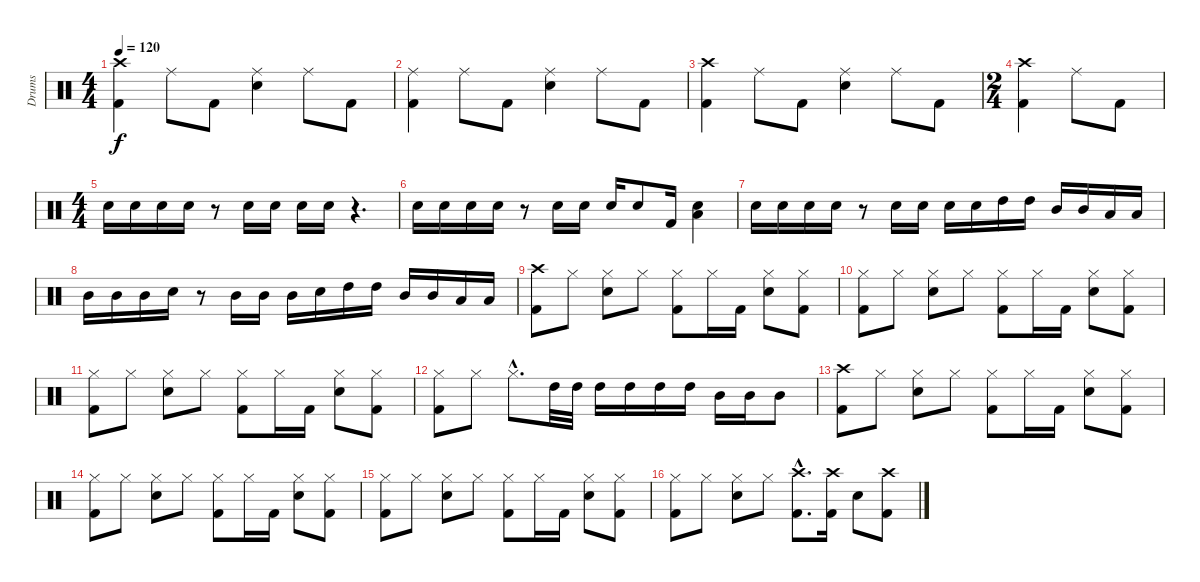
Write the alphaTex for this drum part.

\track ("Drums" "Drums") {instrument percussion}
\staff {score}
\articulation defaults
\ts (4 4)
\tempo 120
\clef neutral
\ks c
("Crash high (hit)" "Kick (hit) 2").4{dy f} "Ride (middle)".8 "Kick (hit) 2".8 ("Ride (middle)" "Electric Snare (hit)").4 "Ride (middle)".8 "Kick (hit) 2".8 |
("Ride (middle)" "Kick (hit) 2").4 "Ride (middle)".8 "Kick (hit) 2".8 ("Ride (middle)" "Electric Snare (hit)").4 "Ride (middle)".8 "Kick (hit) 2".8 |
("Crash high (hit)" "Kick (hit) 2").4 "Ride (middle)".8 "Kick (hit) 2".8 ("Ride (middle)" "Electric Snare (hit)").4 "Ride (middle)".8 "Kick (hit) 2".8 |
\ts (2 4)
("Crash high (hit)" "Kick (hit) 2").4 "Ride (middle)".8 "Kick (hit) 2".8 |
\ts (4 4)
"Electric Snare (hit)".16 "Electric Snare (hit)".16 "Electric Snare (hit)".16 "Electric Snare (hit)".16 r.8 "Electric Snare (hit)".16 "Electric Snare (hit)".16 "Electric Snare (hit)".16 "Electric Snare (hit)".16 r.4{d} |
"Electric Snare (hit)".16 "Electric Snare (hit)".16 "Electric Snare (hit)".16 "Electric Snare (hit)".16 r.8 "Electric Snare (hit)".16 "Electric Snare (hit)".16 "Electric Snare (hit)".16 "Electric Snare (hit)".8 "Kick (hit) 2".16 ("Electric Snare (hit)" "Low Tom (hit)").4 |
"Electric Snare (hit)".16 "Electric Snare (hit)".16 "Electric Snare (hit)".16 "Electric Snare (hit)".16 r.8 "Electric Snare (hit)".16 "Electric Snare (hit)".16 "Electric Snare (hit)".16 "Electric Snare (hit)".16 "High Tom (hit)".16 "High Tom (hit)".16 "Mid Tom (hit)".16 "Mid Tom (hit)".16 "Low Tom (hit)".16 "Low Tom (hit)".16 |
"Mid Tom (hit)".16 "Mid Tom (hit)".16 "Mid Tom (hit)".16 "Electric Snare (hit)".16 r.8 "Mid Tom (hit)".16 "Mid Tom (hit)".16 "Mid Tom (hit)".16 "Snare (hit)".16 "High Tom (hit)".16 "High Tom (hit)".16 "Mid Tom (hit)".16 "Mid Tom (hit)".16 "Low Tom (hit)".16 "Low Tom (hit)".16 |
("Crash high (hit)" "Kick (hit) 2").8 "Hi-Hat (closed)".8 ("Hi-Hat (closed)" "Electric Snare (hit)").8 "Hi-Hat (closed)".8 ("Hi-Hat (closed)" "Kick (hit) 2").8 "Hi-Hat (closed)".16 "Kick (hit) 2".16 ("Hi-Hat (closed)" "Electric Snare (hit)").8 ("Hi-Hat (closed)" "Kick (hit) 2").8 |
("Hi-Hat (closed)" "Kick (hit) 2").8 "Hi-Hat (closed)".8 ("Hi-Hat (closed)" "Electric Snare (hit)").8 "Hi-Hat (closed)".8 ("Hi-Hat (closed)" "Kick (hit) 2").8 "Hi-Hat (closed)".16 "Kick (hit) 2".16 ("Hi-Hat (closed)" "Electric Snare (hit)").8 ("Hi-Hat (closed)" "Kick (hit) 2").8 |
("Hi-Hat (closed)" "Kick (hit) 2").8 "Hi-Hat (closed)".8 ("Hi-Hat (closed)" "Electric Snare (hit)").8 "Hi-Hat (closed)".8 ("Hi-Hat (closed)" "Kick (hit) 2").8 "Hi-Hat (closed)".16 "Kick (hit) 2".16 ("Hi-Hat (closed)" "Electric Snare (hit)").8 ("Hi-Hat (closed)" "Kick (hit) 2").8 |
("Hi-Hat (closed)" "Kick (hit) 2").8 "Hi-Hat (closed)".8 "Hi-Hat (closed)"{hac}.8{d} "High Tom (hit)".32 "High Tom (hit)".32 "High Tom (hit)".16 "High Tom (hit)".16 "High Tom (hit)".16 "High Tom (hit)".16 "Mid Tom (hit)".16 "Mid Tom (hit)".16 "Mid Tom (hit)".8 |
("Crash high (hit)" "Kick (hit) 2").8 "Hi-Hat (closed)".8 ("Hi-Hat (closed)" "Electric Snare (hit)").8 "Hi-Hat (closed)".8 ("Hi-Hat (closed)" "Kick (hit) 2").8 "Hi-Hat (closed)".16 "Kick (hit) 2".16 ("Hi-Hat (closed)" "Electric Snare (hit)").8 ("Hi-Hat (closed)" "Kick (hit) 2").8 |
("Hi-Hat (closed)" "Kick (hit) 2").8 "Hi-Hat (closed)".8 ("Hi-Hat (closed)" "Electric Snare (hit)").8 "Hi-Hat (closed)".8 ("Hi-Hat (closed)" "Kick (hit) 2").8 "Hi-Hat (closed)".16 "Kick (hit) 2".16 ("Hi-Hat (closed)" "Electric Snare (hit)").8 ("Hi-Hat (closed)" "Kick (hit) 2").8 |
("Hi-Hat (closed)" "Kick (hit) 2").8 "Hi-Hat (closed)".8 ("Hi-Hat (closed)" "Electric Snare (hit)").8 "Hi-Hat (closed)".8 ("Hi-Hat (closed)" "Kick (hit) 2").8 "Hi-Hat (closed)".16 "Kick (hit) 2".16 ("Hi-Hat (closed)" "Electric Snare (hit)").8 ("Hi-Hat (closed)" "Kick (hit) 2").8 |
("Hi-Hat (closed)" "Kick (hit) 2").8 "Hi-Hat (closed)".8 ("Hi-Hat (closed)" "Electric Snare (hit)").8 "Hi-Hat (closed)".8 ("Crash high (hit)"{hac} "Kick (hit) 2"{hac}).8{d} ("Crash high (hit)" "Kick (hit) 2").16 "Electric Snare (hit)".8 ("Crash high (hit)" "Kick (hit) 2").8
